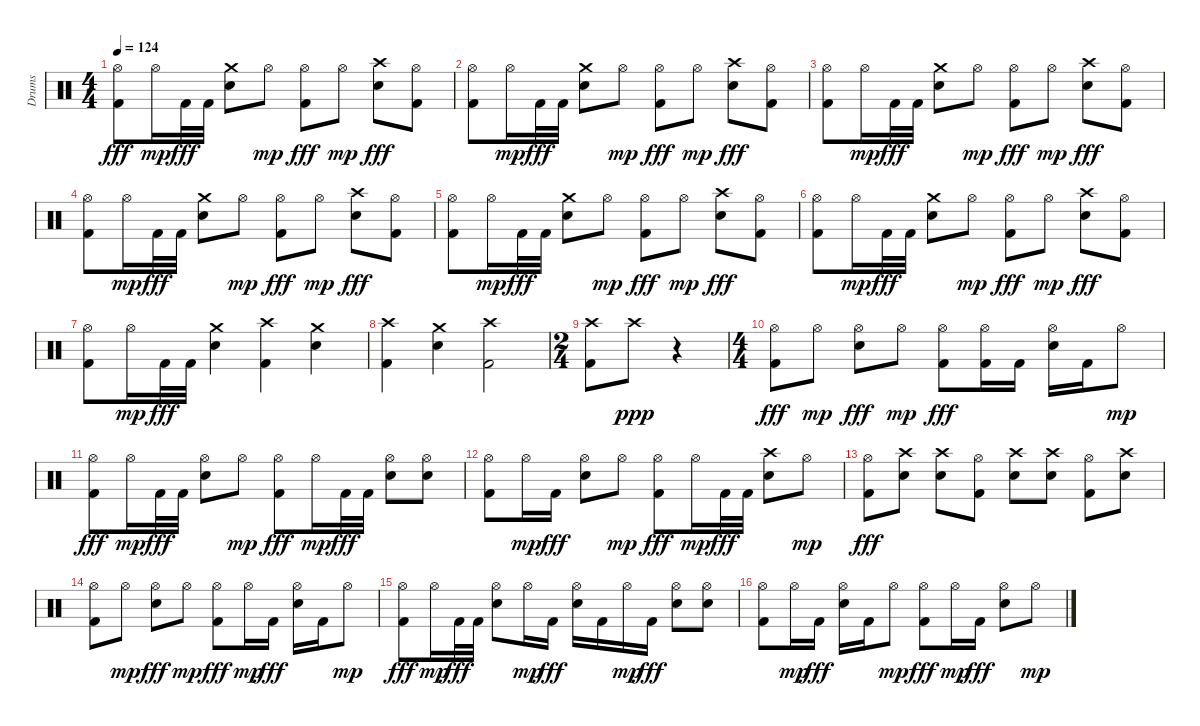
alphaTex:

\track ("Drums" "Drums") {instrument percussion}
\staff {score}
\articulation defaults
\ts (4 4)
\tempo 124
\clef neutral
\ks c
("Hi-Hat (open)" "Kick (hit) 2").8{dy fff} "Hi-Hat (open)".16{dy mp} "Kick (hit) 2".32{dy fff} "Kick (hit) 2".32 ("Crash medium (hit)" "Electric Snare (hit)").8 "Hi-Hat (open)".8{dy mp} ("Hi-Hat (open)" "Kick (hit) 2").8{dy fff} "Hi-Hat (open)".8{dy mp} ("Crash high (hit)" "Electric Snare (hit)").8{dy fff} ("Hi-Hat (open)" "Kick (hit) 2").8 |
("Hi-Hat (open)" "Kick (hit) 2").8 "Hi-Hat (open)".16{dy mp} "Kick (hit) 2".32{dy fff} "Kick (hit) 2".32 ("Crash medium (hit)" "Electric Snare (hit)").8 "Hi-Hat (open)".8{dy mp} ("Hi-Hat (open)" "Kick (hit) 2").8{dy fff} "Hi-Hat (open)".8{dy mp} ("Crash high (hit)" "Electric Snare (hit)").8{dy fff} ("Hi-Hat (open)" "Kick (hit) 2").8 |
("Hi-Hat (open)" "Kick (hit) 2").8 "Hi-Hat (open)".16{dy mp} "Kick (hit) 2".32{dy fff} "Kick (hit) 2".32 ("Crash medium (hit)" "Electric Snare (hit)").8 "Hi-Hat (open)".8{dy mp} ("Hi-Hat (open)" "Kick (hit) 2").8{dy fff} "Hi-Hat (open)".8{dy mp} ("Crash high (hit)" "Electric Snare (hit)").8{dy fff} ("Hi-Hat (open)" "Kick (hit) 2").8 |
("Hi-Hat (open)" "Kick (hit) 2").8 "Hi-Hat (open)".16{dy mp} "Kick (hit) 2".32{dy fff} "Kick (hit) 2".32 ("Crash medium (hit)" "Electric Snare (hit)").8 "Hi-Hat (open)".8{dy mp} ("Hi-Hat (open)" "Kick (hit) 2").8{dy fff} "Hi-Hat (open)".8{dy mp} ("Crash high (hit)" "Electric Snare (hit)").8{dy fff} ("Hi-Hat (open)" "Kick (hit) 2").8 |
("Hi-Hat (open)" "Kick (hit) 2").8 "Hi-Hat (open)".16{dy mp} "Kick (hit) 2".32{dy fff} "Kick (hit) 2".32 ("Crash medium (hit)" "Electric Snare (hit)").8 "Hi-Hat (open)".8{dy mp} ("Hi-Hat (open)" "Kick (hit) 2").8{dy fff} "Hi-Hat (open)".8{dy mp} ("Crash high (hit)" "Electric Snare (hit)").8{dy fff} ("Hi-Hat (open)" "Kick (hit) 2").8 |
("Hi-Hat (open)" "Kick (hit) 2").8 "Hi-Hat (open)".16{dy mp} "Kick (hit) 2".32{dy fff} "Kick (hit) 2".32 ("Crash medium (hit)" "Electric Snare (hit)").8 "Hi-Hat (open)".8{dy mp} ("Hi-Hat (open)" "Kick (hit) 2").8{dy fff} "Hi-Hat (open)".8{dy mp} ("Crash high (hit)" "Electric Snare (hit)").8{dy fff} ("Hi-Hat (open)" "Kick (hit) 2").8 |
("Hi-Hat (open)" "Kick (hit) 2").8 "Hi-Hat (open)".16{dy mp} "Kick (hit) 2".32{dy fff} "Kick (hit) 2".32 ("Crash medium (hit)" "Electric Snare (hit)").4 ("Crash high (hit)" "Kick (hit) 2").4 ("Crash medium (hit)" "Electric Snare (hit)").4 |
("Crash high (hit)" "Kick (hit) 2").4 ("Crash medium (hit)" "Electric Snare (hit)").4 ("Crash high (hit)" "Kick (hit) 2").2 |
\ts (2 4)
("Crash high (hit)" "Kick (hit) 2").8 "Crash high (hit)".8{dy ppp} r.4 |
\ts (4 4)
("Hi-Hat (open)" "Kick (hit) 2").8{dy fff} "Hi-Hat (open)".8{dy mp} ("Hi-Hat (open)" "Electric Snare (hit)").8{dy fff} "Hi-Hat (open)".8{dy mp} ("Hi-Hat (open)" "Kick (hit) 2").8{dy fff} ("Hi-Hat (open)" "Kick (hit) 2").16 "Kick (hit) 2".16 ("Hi-Hat (open)" "Electric Snare (hit)").16 "Kick (hit) 2".16 "Hi-Hat (open)".8{dy mp} |
("Hi-Hat (open)" "Kick (hit) 2").8{dy fff} "Hi-Hat (open)".16{dy mp} "Kick (hit) 2".32{dy fff} "Kick (hit) 2".32 ("Hi-Hat (open)" "Electric Snare (hit)").8 "Hi-Hat (open)".8{dy mp} ("Hi-Hat (open)" "Kick (hit) 2").8{dy fff} "Hi-Hat (open)".16{dy mp} "Kick (hit) 2".32{dy fff} "Kick (hit) 2".32 ("Hi-Hat (open)" "Electric Snare (hit)").8 ("Hi-Hat (open)" "Electric Snare (hit)").8 |
("Hi-Hat (open)" "Kick (hit) 2").8 "Hi-Hat (open)".16{dy mp} "Kick (hit) 2".16{dy fff} ("Hi-Hat (open)" "Electric Snare (hit)").8 "Hi-Hat (open)".8{dy mp} ("Hi-Hat (open)" "Kick (hit) 2").8{dy fff} "Hi-Hat (open)".16{dy mp} "Kick (hit) 2".32{dy fff} "Kick (hit) 2".32 ("Crash high (hit)" "Electric Snare (hit)").8 "Hi-Hat (open)".8{dy mp} |
("Hi-Hat (open)" "Kick (hit) 2").8{dy fff} ("Crash high (hit)" "Electric Snare (hit)").8 ("Crash high (hit)" "Electric Snare (hit)").8 ("Hi-Hat (open)" "Kick (hit) 2").8 ("Crash high (hit)" "Electric Snare (hit)").8 ("Crash high (hit)" "Electric Snare (hit)").8 ("Hi-Hat (open)" "Kick (hit) 2").8 ("Crash high (hit)" "Electric Snare (hit)").8 |
("Hi-Hat (open)" "Kick (hit) 2").8 "Hi-Hat (open)".8{dy mp} ("Hi-Hat (open)" "Electric Snare (hit)").8{dy fff} "Hi-Hat (open)".8{dy mp} ("Hi-Hat (open)" "Kick (hit) 2").8{dy fff} "Hi-Hat (open)".16{dy mp} "Kick (hit) 2".16{dy fff} ("Hi-Hat (open)" "Electric Snare (hit)").16 "Kick (hit) 2".16 "Hi-Hat (open)".8{dy mp} |
("Hi-Hat (open)" "Kick (hit) 2").8{dy fff} "Hi-Hat (open)".16{dy mp} "Kick (hit) 2".32{dy fff} "Kick (hit) 2".32 ("Hi-Hat (open)" "Electric Snare (hit)").8 "Hi-Hat (open)".16{dy mp} "Kick (hit) 2".16{dy fff} ("Hi-Hat (open)" "Electric Snare (hit)").16 "Kick (hit) 2".16 "Hi-Hat (open)".16{dy mp} "Kick (hit) 2".16{dy fff} ("Hi-Hat (open)" "Electric Snare (hit)").8 ("Hi-Hat (open)" "Electric Snare (hit)").8 |
("Hi-Hat (open)" "Kick (hit) 2").8 "Hi-Hat (open)".16{dy mp} "Kick (hit) 2".16{dy fff} ("Hi-Hat (open)" "Electric Snare (hit)").16 "Kick (hit) 2".16 "Hi-Hat (open)".8{dy mp} ("Hi-Hat (open)" "Kick (hit) 2").8{dy fff} "Hi-Hat (open)".16{dy mp} "Kick (hit) 2".16{dy fff} ("Hi-Hat (open)" "Electric Snare (hit)").8 "Hi-Hat (open)".8{dy mp}
